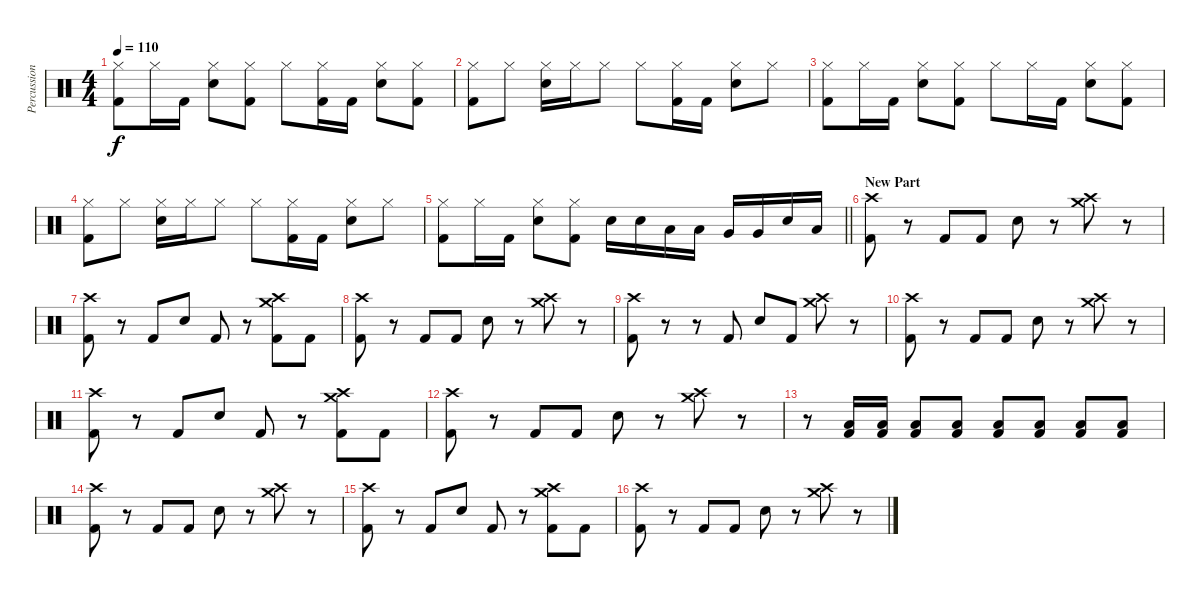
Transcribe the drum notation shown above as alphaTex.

\track ("Percussion" "Percussion") {instrument percussion}
\staff {score}
\articulation defaults
\ts (4 4)
\tempo 110
\clef neutral
\ks c
("Kick (hit) 2" "Hi-Hat (closed)").8{dy f} "Hi-Hat (closed)".16 "Kick (hit) 2".16 ("Electric Snare (hit)" "Hi-Hat (closed)").8 ("Kick (hit) 2" "Hi-Hat (closed)").8 "Hi-Hat (closed)".8 ("Kick (hit) 2" "Hi-Hat (closed)").16 "Kick (hit) 2".16 ("Electric Snare (hit)" "Hi-Hat (closed)").8 ("Kick (hit) 2" "Hi-Hat (closed)").8 |
("Kick (hit) 2" "Hi-Hat (closed)").8 "Hi-Hat (closed)".8 ("Electric Snare (hit)" "Hi-Hat (closed)").16 "Hi-Hat (closed)".16 "Hi-Hat (closed)".8 "Hi-Hat (closed)".8 ("Kick (hit) 2" "Hi-Hat (closed)").16 "Kick (hit) 2".16 ("Electric Snare (hit)" "Hi-Hat (closed)").8 "Hi-Hat (closed)".8 |
("Kick (hit) 2" "Hi-Hat (closed)").8 "Hi-Hat (closed)".16 "Kick (hit) 2".16 ("Electric Snare (hit)" "Hi-Hat (closed)").8 ("Kick (hit) 2" "Hi-Hat (closed)").8 "Hi-Hat (closed)".8 "Hi-Hat (closed)".16 "Kick (hit) 2".16 ("Electric Snare (hit)" "Hi-Hat (closed)").8 ("Kick (hit) 2" "Hi-Hat (closed)").8 |
("Kick (hit) 2" "Hi-Hat (closed)").8 "Hi-Hat (closed)".8 ("Electric Snare (hit)" "Hi-Hat (closed)").16 "Hi-Hat (closed)".16 "Hi-Hat (closed)".8 "Hi-Hat (closed)".8 ("Kick (hit) 2" "Hi-Hat (closed)").16 "Kick (hit) 2".16 ("Electric Snare (hit)" "Hi-Hat (closed)").8 "Hi-Hat (closed)".8 |
\barLineRight lightlight
("Kick (hit) 2" "Hi-Hat (closed)").8 "Hi-Hat (closed)".16 "Kick (hit) 2".16 ("Electric Snare (hit)" "Hi-Hat (closed)").8 ("Kick (hit) 2" "Hi-Hat (closed)").8 "Electric Snare (hit)".16 "Electric Snare (hit)".16 "Low Tom (hit)".16 "Low Tom (hit)".16 "Very Low Tom (hit)".16 "Very Low Tom (hit)".16 "Electric Snare (hit)".16 "Low Floor Tom (hit)".16 |
\section ("" "New Part")
("Kick (hit) 2" "Crash high (hit)").8 r.8 "Kick (hit) 2".8 "Kick (hit) 2".8 "Electric Snare (hit)".8 r.8 ("Crash medium (hit)" "Crash high (hit)").8 r.8 |
("Kick (hit) 2" "Crash high (hit)").8 r.8 "Kick (hit) 2".8 "Electric Snare (hit)".8 "Kick (hit) 2".8 r.8 ("Kick (hit) 2" "Crash medium (hit)" "Crash high (hit)").8 "Kick (hit) 2".8 |
("Kick (hit) 2" "Crash high (hit)").8 r.8 "Kick (hit) 2".8 "Kick (hit) 2".8 "Electric Snare (hit)".8 r.8 ("Crash medium (hit)" "Crash high (hit)").8 r.8 |
("Kick (hit) 2" "Crash high (hit)").8 r.8 r.8 "Kick (hit) 2".8 "Electric Snare (hit)".8 "Kick (hit) 2".8 ("Crash medium (hit)" "Crash high (hit)").8 r.8 |
("Kick (hit) 2" "Crash high (hit)").8 r.8 "Kick (hit) 2".8 "Kick (hit) 2".8 "Electric Snare (hit)".8 r.8 ("Crash medium (hit)" "Crash high (hit)").8 r.8 |
("Kick (hit) 2" "Crash high (hit)").8 r.8 "Kick (hit) 2".8 "Electric Snare (hit)".8 "Kick (hit) 2".8 r.8 ("Kick (hit) 2" "Crash medium (hit)" "Crash high (hit)").8 "Kick (hit) 2".8 |
("Kick (hit) 2" "Crash high (hit)").8 r.8 "Kick (hit) 2".8 "Kick (hit) 2".8 "Electric Snare (hit)".8 r.8 ("Crash medium (hit)" "Crash high (hit)").8 r.8 |
r.8 ("Kick (hit) 2" "Low Floor Tom (hit)").16 ("Kick (hit) 2" "Low Floor Tom (hit)").16 ("Kick (hit) 2" "Low Floor Tom (hit)").8 ("Kick (hit) 2" "Low Floor Tom (hit)").8 ("Kick (hit) 2" "Low Floor Tom (hit)").8 ("Kick (hit) 2" "Low Floor Tom (hit)").8 ("Kick (hit) 2" "Low Floor Tom (hit)").8 ("Kick (hit) 2" "Low Floor Tom (hit)").8 |
("Kick (hit) 2" "Crash high (hit)").8 r.8 "Kick (hit) 2".8 "Kick (hit) 2".8 "Electric Snare (hit)".8 r.8 ("Crash medium (hit)" "Crash high (hit)").8 r.8 |
("Kick (hit) 2" "Crash high (hit)").8 r.8 "Kick (hit) 2".8 "Electric Snare (hit)".8 "Kick (hit) 2".8 r.8 ("Kick (hit) 2" "Crash medium (hit)" "Crash high (hit)").8 "Kick (hit) 2".8 |
("Kick (hit) 2" "Crash high (hit)").8 r.8 "Kick (hit) 2".8 "Kick (hit) 2".8 "Electric Snare (hit)".8 r.8 ("Crash medium (hit)" "Crash high (hit)").8 r.8
